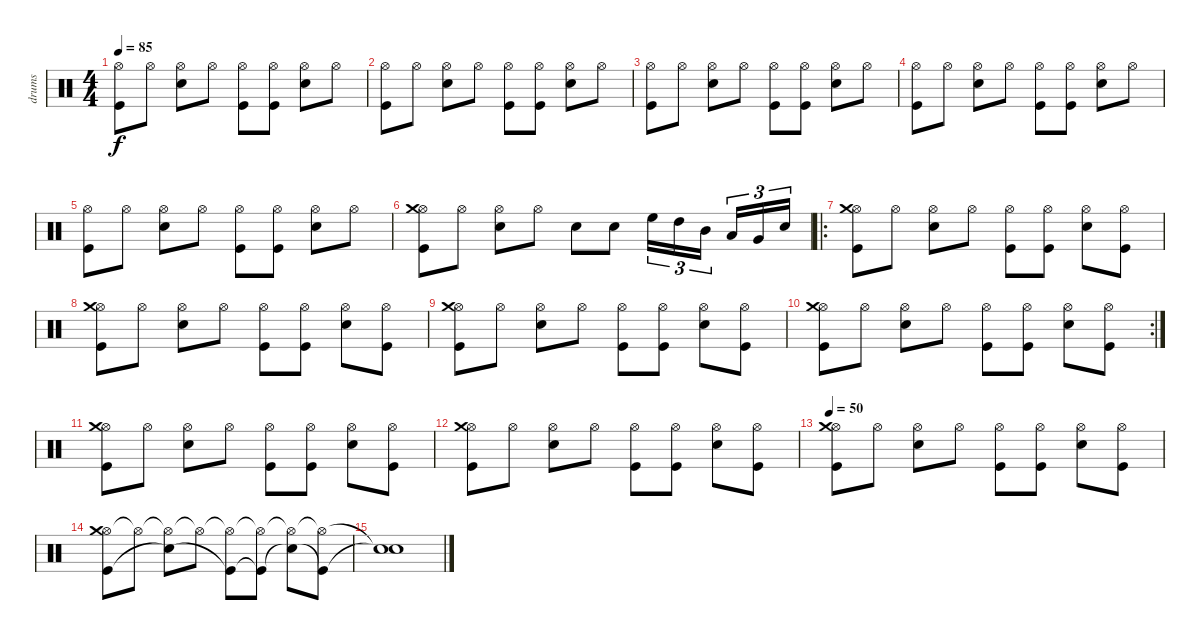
\track ("drums" "drums") {instrument percussion}
\staff {score}
\articulation defaults
\ts (4 4)
\tempo 85
\clef neutral
\ks c
("Hi-Hat (open)" "Kick (hit)").8{dy f} "Hi-Hat (open)".8 ("Hi-Hat (open)" "Snare (hit) 2").8 "Hi-Hat (open)".8 ("Hi-Hat (open)" "Kick (hit)").8 ("Hi-Hat (open)" "Kick (hit)").8 ("Hi-Hat (open)" "Snare (hit) 2").8 "Hi-Hat (open)".8 |
("Hi-Hat (open)" "Kick (hit)").8 "Hi-Hat (open)".8 ("Hi-Hat (open)" "Snare (hit) 2").8 "Hi-Hat (open)".8 ("Hi-Hat (open)" "Kick (hit)").8 ("Hi-Hat (open)" "Kick (hit)").8 ("Hi-Hat (open)" "Snare (hit) 2").8 "Hi-Hat (open)".8 |
("Hi-Hat (open)" "Kick (hit)").8 "Hi-Hat (open)".8 ("Hi-Hat (open)" "Snare (hit) 2").8 "Hi-Hat (open)".8 ("Hi-Hat (open)" "Kick (hit)").8 ("Hi-Hat (open)" "Kick (hit)").8 ("Hi-Hat (open)" "Snare (hit) 2").8 "Hi-Hat (open)".8 |
("Hi-Hat (open)" "Kick (hit)").8 "Hi-Hat (open)".8 ("Hi-Hat (open)" "Snare (hit) 2").8 "Hi-Hat (open)".8 ("Hi-Hat (open)" "Kick (hit)").8 ("Hi-Hat (open)" "Kick (hit)").8 ("Hi-Hat (open)" "Snare (hit) 2").8 "Hi-Hat (open)".8 |
("Hi-Hat (open)" "Kick (hit)").8 "Hi-Hat (open)".8 ("Hi-Hat (open)" "Snare (hit) 2").8 "Hi-Hat (open)".8 ("Hi-Hat (open)" "Kick (hit)").8 ("Hi-Hat (open)" "Kick (hit)").8 ("Hi-Hat (open)" "Snare (hit) 2").8 "Hi-Hat (open)".8 |
("Hi-Hat (open)" "Crash medium (hit)" "Kick (hit)").8 "Hi-Hat (open)".8 ("Hi-Hat (open)" "Snare (hit) 2").8 "Hi-Hat (open)".8 "Snare (hit) 2".8 "Snare (hit) 2".8 "High Floor Tom (hit)".16{tu (3 2)} "High Tom (hit)".16{tu (3 2)} "Mid Tom (hit)".16{tu (3 2)} "Low Tom (hit)".16{tu (3 2)} "Very Low Tom (hit)".16{tu (3 2)} "Snare (hit) 2".16{tu (3 2)} |
\ro
("Hi-Hat (open)" "Kick (hit)" "Crash medium (hit)").8 "Hi-Hat (open)".8 ("Hi-Hat (open)" "Snare (hit) 2").8 "Hi-Hat (open)".8 ("Hi-Hat (open)" "Kick (hit)").8 ("Hi-Hat (open)" "Kick (hit)").8 ("Hi-Hat (open)" "Snare (hit) 2").8 ("Hi-Hat (open)" "Kick (hit)").8 |
("Hi-Hat (open)" "Kick (hit)" "Crash medium (hit)").8 "Hi-Hat (open)".8 ("Hi-Hat (open)" "Snare (hit) 2").8 "Hi-Hat (open)".8 ("Hi-Hat (open)" "Kick (hit)").8 ("Hi-Hat (open)" "Kick (hit)").8 ("Hi-Hat (open)" "Snare (hit) 2").8 ("Hi-Hat (open)" "Kick (hit)").8 |
("Hi-Hat (open)" "Kick (hit)" "Crash medium (hit)").8 "Hi-Hat (open)".8 ("Hi-Hat (open)" "Snare (hit) 2").8 "Hi-Hat (open)".8 ("Hi-Hat (open)" "Kick (hit)").8 ("Hi-Hat (open)" "Kick (hit)").8 ("Hi-Hat (open)" "Snare (hit) 2").8 ("Hi-Hat (open)" "Kick (hit)").8 |
\rc 2
("Hi-Hat (open)" "Kick (hit)" "Crash medium (hit)").8 "Hi-Hat (open)".8 ("Hi-Hat (open)" "Snare (hit) 2").8 "Hi-Hat (open)".8 ("Hi-Hat (open)" "Kick (hit)").8 ("Hi-Hat (open)" "Kick (hit)").8 ("Hi-Hat (open)" "Snare (hit) 2").8 ("Hi-Hat (open)" "Kick (hit)").8 |
("Hi-Hat (open)" "Kick (hit)" "Crash medium (hit)").8 "Hi-Hat (open)".8 ("Hi-Hat (open)" "Snare (hit) 2").8 "Hi-Hat (open)".8 ("Hi-Hat (open)" "Kick (hit)").8 ("Hi-Hat (open)" "Kick (hit)").8 ("Hi-Hat (open)" "Snare (hit) 2").8 ("Hi-Hat (open)" "Kick (hit)").8 |
("Hi-Hat (open)" "Kick (hit)" "Crash medium (hit)").8 "Hi-Hat (open)".8 ("Hi-Hat (open)" "Snare (hit) 2").8 "Hi-Hat (open)".8 ("Hi-Hat (open)" "Kick (hit)").8 ("Hi-Hat (open)" "Kick (hit)").8 ("Hi-Hat (open)" "Snare (hit) 2").8 ("Hi-Hat (open)" "Kick (hit)").8 |
\tempo 50
("Hi-Hat (open)" "Kick (hit)" "Crash medium (hit)").8 "Hi-Hat (open)".8 ("Hi-Hat (open)" "Snare (hit) 2").8 "Hi-Hat (open)".8 ("Hi-Hat (open)" "Kick (hit)").8 ("Hi-Hat (open)" "Kick (hit)").8 ("Hi-Hat (open)" "Snare (hit) 2").8 ("Hi-Hat (open)" "Kick (hit)").8 |
("Hi-Hat (open)" "Kick (hit)" "Crash medium (hit)").8 "Hi-Hat (open)"{t}.8 ("Hi-Hat (open)"{t} "Snare (hit) 2"{t}).8 "Hi-Hat (open)"{t}.8 ("Hi-Hat (open)"{t} "Kick (hit)"{t}).8 ("Hi-Hat (open)"{t} "Kick (hit)"{t}).8 ("Hi-Hat (open)"{t} "Snare (hit) 2"{t}).8 ("Hi-Hat (open)"{t} "Kick (hit)"{t}).8 |
("Snare (hit)"{t} "Snare (hit)"{t}).1
